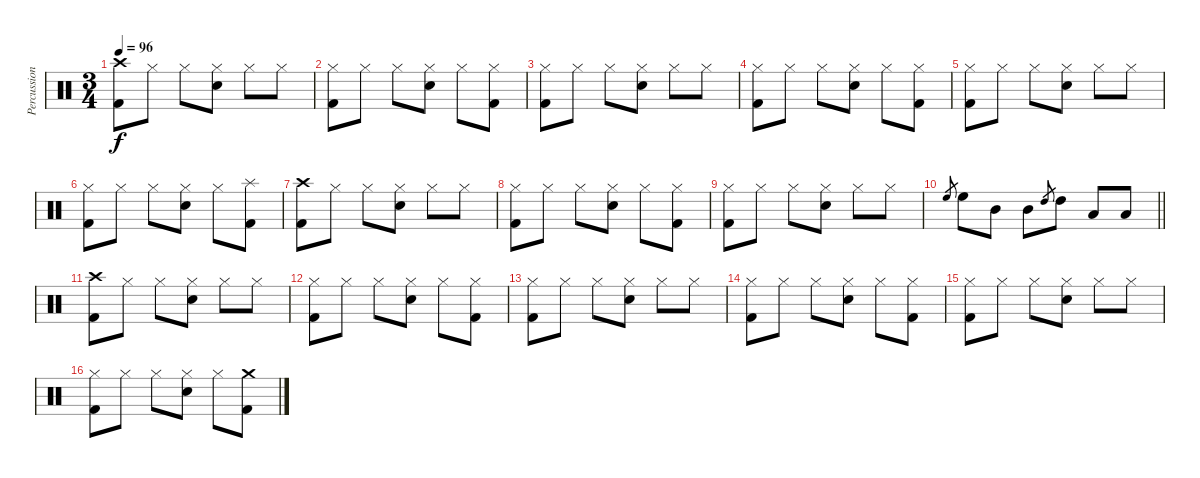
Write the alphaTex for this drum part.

\track ("Percussion" "Percussion") {instrument percussion}
\staff {score}
\articulation defaults
\ts (3 4)
\tempo 96
\clef neutral
\ks c
("Crash high (hit)" "Kick (hit) 2").8{dy f} "Hi-Hat (closed)".8 "Hi-Hat (closed)".8 ("Hi-Hat (closed)" "Snare (hit) 2").8 "Hi-Hat (closed)".8 "Hi-Hat (closed)".8 |
("Hi-Hat (closed)" "Kick (hit) 2").8 "Hi-Hat (closed)".8 "Hi-Hat (closed)".8 ("Hi-Hat (closed)" "Snare (hit) 2").8 "Hi-Hat (closed)".8 ("Hi-Hat (closed)" "Kick (hit) 2").8 |
("Hi-Hat (closed)" "Kick (hit) 2").8 "Hi-Hat (closed)".8 "Hi-Hat (closed)".8 ("Hi-Hat (closed)" "Snare (hit) 2").8 "Hi-Hat (closed)".8 "Hi-Hat (closed)".8 |
("Hi-Hat (closed)" "Kick (hit) 2").8 "Hi-Hat (closed)".8 "Hi-Hat (closed)".8 ("Hi-Hat (closed)" "Snare (hit) 2").8 "Hi-Hat (closed)".8 ("Hi-Hat (closed)" "Kick (hit) 2").8 |
("Hi-Hat (closed)" "Kick (hit) 2").8 "Hi-Hat (closed)".8 "Hi-Hat (closed)".8 ("Hi-Hat (closed)" "Snare (hit) 2").8 "Hi-Hat (closed)".8 "Hi-Hat (closed)".8 |
("Hi-Hat (closed)" "Kick (hit) 2").8 "Hi-Hat (closed)".8 "Hi-Hat (closed)".8 ("Hi-Hat (closed)" "Snare (hit) 2").8 "Hi-Hat (closed)".8 ("Splash (hit)" "Kick (hit) 2").8 |
("Crash high (hit)" "Kick (hit) 2").8 "Hi-Hat (closed)".8 "Hi-Hat (closed)".8 ("Hi-Hat (closed)" "Snare (hit) 2").8 "Hi-Hat (closed)".8 "Hi-Hat (closed)".8 |
("Hi-Hat (closed)" "Kick (hit) 2").8 "Hi-Hat (closed)".8 "Hi-Hat (closed)".8 ("Hi-Hat (closed)" "Snare (hit) 2").8 "Hi-Hat (closed)".8 ("Hi-Hat (closed)" "Kick (hit) 2").8 |
("Hi-Hat (closed)" "Kick (hit) 2").8 "Hi-Hat (closed)".8 "Hi-Hat (closed)".8 ("Hi-Hat (closed)" "Snare (hit) 2").8 "Hi-Hat (closed)".8 "Hi-Hat (closed)".8 |
\barLineRight lightlight "High Floor Tom (hit)".8{gr} "High Floor Tom (hit)".8 "Mid Tom (hit)".8 "Mid Tom (hit)".8 "High Tom (hit)".8{gr} "High Tom (hit)".8 "Low Tom (hit)".8 "Low Tom (hit)".8
|
("Crash high (hit)" "Kick (hit) 2").8 "Hi-Hat (closed)".8 "Hi-Hat (closed)".8 ("Hi-Hat (closed)" "Snare (hit) 2").8 "Hi-Hat (closed)".8 "Hi-Hat (closed)".8 |
("Hi-Hat (closed)" "Kick (hit) 2").8 "Hi-Hat (closed)".8 "Hi-Hat (closed)".8 ("Hi-Hat (closed)" "Snare (hit) 2").8 "Hi-Hat (closed)".8 ("Hi-Hat (closed)" "Kick (hit) 2").8 |
("Hi-Hat (closed)" "Kick (hit) 2").8 "Hi-Hat (closed)".8 "Hi-Hat (closed)".8 ("Hi-Hat (closed)" "Snare (hit) 2").8 "Hi-Hat (closed)".8 "Hi-Hat (closed)".8 |
("Hi-Hat (closed)" "Kick (hit) 2").8 "Hi-Hat (closed)".8 "Hi-Hat (closed)".8 ("Hi-Hat (closed)" "Snare (hit) 2").8 "Hi-Hat (closed)".8 ("Hi-Hat (closed)" "Kick (hit) 2").8 |
("Hi-Hat (closed)" "Kick (hit) 2").8 "Hi-Hat (closed)".8 "Hi-Hat (closed)".8 ("Hi-Hat (closed)" "Snare (hit) 2").8 "Hi-Hat (closed)".8 "Hi-Hat (closed)".8 |
("Hi-Hat (closed)" "Kick (hit) 2").8 "Hi-Hat (closed)".8 "Hi-Hat (closed)".8 ("Hi-Hat (closed)" "Snare (hit) 2").8 "Hi-Hat (closed)".8 ("Crash medium (hit)" "Kick (hit) 2").8
